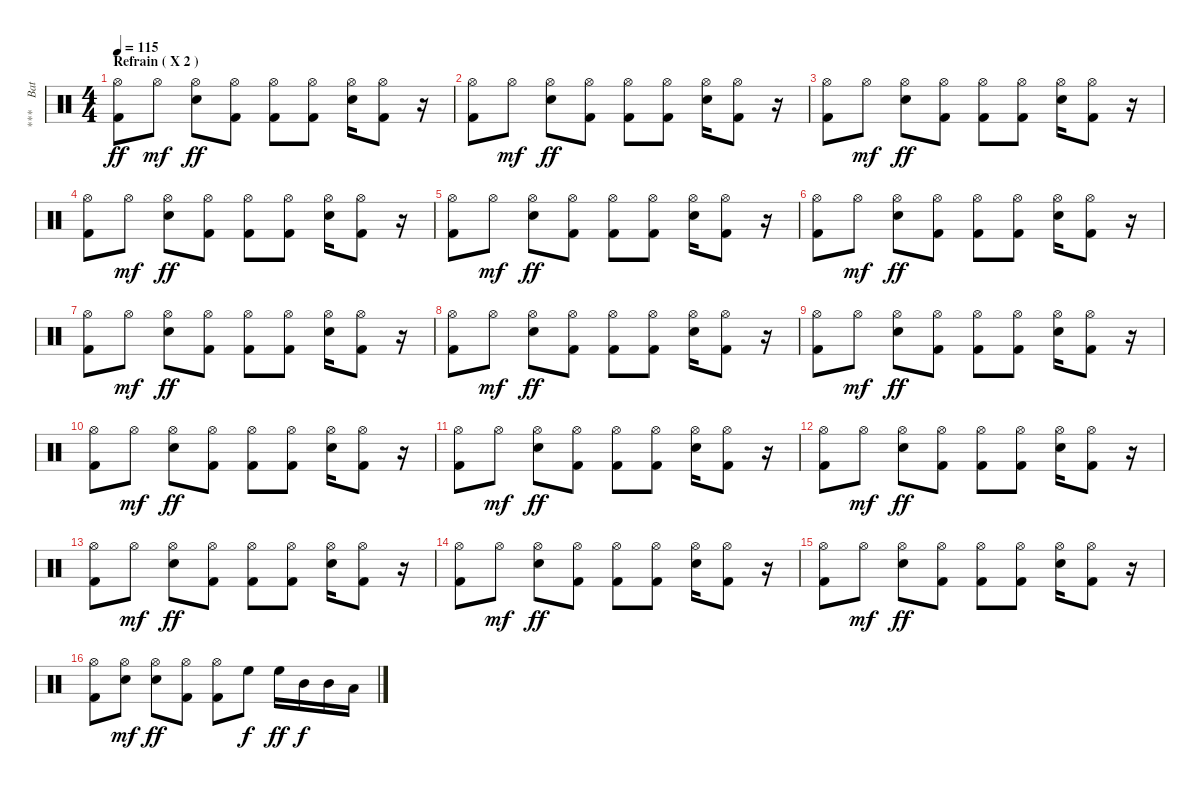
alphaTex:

\track ("***    Batterie     ***" "***    Bat") {instrument percussion}
\staff {score}
\articulation defaults
\ts (4 4)
\section ("" "Refrain ( X 2 )")
\tempo 115
\clef neutral
\ks c
("Hi-Hat (open)" "Kick (hit) 2").8{dy ff} "Hi-Hat (open)".8{dy mf} ("Hi-Hat (open)" "Snare (hit) 2").8{dy ff} ("Hi-Hat (open)" "Kick (hit) 2").8 ("Hi-Hat (open)" "Kick (hit) 2").8 ("Hi-Hat (open)" "Kick (hit) 2").8 ("Hi-Hat (open)" "Snare (hit) 2").16 ("Hi-Hat (open)" "Kick (hit) 2").8 r.16 |
("Hi-Hat (open)" "Kick (hit) 2").8 "Hi-Hat (open)".8{dy mf} ("Hi-Hat (open)" "Snare (hit) 2").8{dy ff} ("Hi-Hat (open)" "Kick (hit) 2").8 ("Hi-Hat (open)" "Kick (hit) 2").8 ("Hi-Hat (open)" "Kick (hit) 2").8 ("Hi-Hat (open)" "Snare (hit) 2").16 ("Hi-Hat (open)" "Kick (hit) 2").8 r.16 |
("Hi-Hat (open)" "Kick (hit) 2").8 "Hi-Hat (open)".8{dy mf} ("Hi-Hat (open)" "Snare (hit) 2").8{dy ff} ("Hi-Hat (open)" "Kick (hit) 2").8 ("Hi-Hat (open)" "Kick (hit) 2").8 ("Hi-Hat (open)" "Kick (hit) 2").8 ("Hi-Hat (open)" "Snare (hit) 2").16 ("Hi-Hat (open)" "Kick (hit) 2").8 r.16 |
("Hi-Hat (open)" "Kick (hit) 2").8 "Hi-Hat (open)".8{dy mf} ("Hi-Hat (open)" "Snare (hit) 2").8{dy ff} ("Hi-Hat (open)" "Kick (hit) 2").8 ("Hi-Hat (open)" "Kick (hit) 2").8 ("Hi-Hat (open)" "Kick (hit) 2").8 ("Hi-Hat (open)" "Snare (hit) 2").16 ("Hi-Hat (open)" "Kick (hit) 2").8 r.16 |
("Hi-Hat (open)" "Kick (hit) 2").8 "Hi-Hat (open)".8{dy mf} ("Hi-Hat (open)" "Snare (hit) 2").8{dy ff} ("Hi-Hat (open)" "Kick (hit) 2").8 ("Hi-Hat (open)" "Kick (hit) 2").8 ("Hi-Hat (open)" "Kick (hit) 2").8 ("Hi-Hat (open)" "Snare (hit) 2").16 ("Hi-Hat (open)" "Kick (hit) 2").8 r.16 |
("Hi-Hat (open)" "Kick (hit) 2").8 "Hi-Hat (open)".8{dy mf} ("Hi-Hat (open)" "Snare (hit) 2").8{dy ff} ("Hi-Hat (open)" "Kick (hit) 2").8 ("Hi-Hat (open)" "Kick (hit) 2").8 ("Hi-Hat (open)" "Kick (hit) 2").8 ("Hi-Hat (open)" "Snare (hit) 2").16 ("Hi-Hat (open)" "Kick (hit) 2").8 r.16 |
("Hi-Hat (open)" "Kick (hit) 2").8 "Hi-Hat (open)".8{dy mf} ("Hi-Hat (open)" "Snare (hit) 2").8{dy ff} ("Hi-Hat (open)" "Kick (hit) 2").8 ("Hi-Hat (open)" "Kick (hit) 2").8 ("Hi-Hat (open)" "Kick (hit) 2").8 ("Hi-Hat (open)" "Snare (hit) 2").16 ("Hi-Hat (open)" "Kick (hit) 2").8 r.16 |
("Hi-Hat (open)" "Kick (hit) 2").8 "Hi-Hat (open)".8{dy mf} ("Hi-Hat (open)" "Snare (hit) 2").8{dy ff} ("Hi-Hat (open)" "Kick (hit) 2").8 ("Hi-Hat (open)" "Kick (hit) 2").8 ("Hi-Hat (open)" "Kick (hit) 2").8 ("Hi-Hat (open)" "Snare (hit) 2").16 ("Hi-Hat (open)" "Kick (hit) 2").8 r.16 |
("Hi-Hat (open)" "Kick (hit) 2").8 "Hi-Hat (open)".8{dy mf} ("Hi-Hat (open)" "Snare (hit) 2").8{dy ff} ("Hi-Hat (open)" "Kick (hit) 2").8 ("Hi-Hat (open)" "Kick (hit) 2").8 ("Hi-Hat (open)" "Kick (hit) 2").8 ("Hi-Hat (open)" "Snare (hit) 2").16 ("Hi-Hat (open)" "Kick (hit) 2").8 r.16 |
("Hi-Hat (open)" "Kick (hit) 2").8 "Hi-Hat (open)".8{dy mf} ("Hi-Hat (open)" "Snare (hit) 2").8{dy ff} ("Hi-Hat (open)" "Kick (hit) 2").8 ("Hi-Hat (open)" "Kick (hit) 2").8 ("Hi-Hat (open)" "Kick (hit) 2").8 ("Hi-Hat (open)" "Snare (hit) 2").16 ("Hi-Hat (open)" "Kick (hit) 2").8 r.16 |
("Hi-Hat (open)" "Kick (hit) 2").8 "Hi-Hat (open)".8{dy mf} ("Hi-Hat (open)" "Snare (hit) 2").8{dy ff} ("Hi-Hat (open)" "Kick (hit) 2").8 ("Hi-Hat (open)" "Kick (hit) 2").8 ("Hi-Hat (open)" "Kick (hit) 2").8 ("Hi-Hat (open)" "Snare (hit) 2").16 ("Hi-Hat (open)" "Kick (hit) 2").8 r.16 |
("Hi-Hat (open)" "Kick (hit) 2").8 "Hi-Hat (open)".8{dy mf} ("Hi-Hat (open)" "Snare (hit) 2").8{dy ff} ("Hi-Hat (open)" "Kick (hit) 2").8 ("Hi-Hat (open)" "Kick (hit) 2").8 ("Hi-Hat (open)" "Kick (hit) 2").8 ("Hi-Hat (open)" "Snare (hit) 2").16 ("Hi-Hat (open)" "Kick (hit) 2").8 r.16 |
("Hi-Hat (open)" "Kick (hit) 2").8 "Hi-Hat (open)".8{dy mf} ("Hi-Hat (open)" "Snare (hit) 2").8{dy ff} ("Hi-Hat (open)" "Kick (hit) 2").8 ("Hi-Hat (open)" "Kick (hit) 2").8 ("Hi-Hat (open)" "Kick (hit) 2").8 ("Hi-Hat (open)" "Snare (hit) 2").16 ("Hi-Hat (open)" "Kick (hit) 2").8 r.16 |
("Hi-Hat (open)" "Kick (hit) 2").8 "Hi-Hat (open)".8{dy mf} ("Hi-Hat (open)" "Snare (hit) 2").8{dy ff} ("Hi-Hat (open)" "Kick (hit) 2").8 ("Hi-Hat (open)" "Kick (hit) 2").8 ("Hi-Hat (open)" "Kick (hit) 2").8 ("Hi-Hat (open)" "Snare (hit) 2").16 ("Hi-Hat (open)" "Kick (hit) 2").8 r.16 |
("Hi-Hat (open)" "Kick (hit) 2").8 "Hi-Hat (open)".8{dy mf} ("Hi-Hat (open)" "Snare (hit) 2").8{dy ff} ("Hi-Hat (open)" "Kick (hit) 2").8 ("Hi-Hat (open)" "Kick (hit) 2").8 ("Hi-Hat (open)" "Kick (hit) 2").8 ("Hi-Hat (open)" "Snare (hit) 2").16 ("Hi-Hat (open)" "Kick (hit) 2").8 r.16 |
("Hi-Hat (open)" "Kick (hit) 2").8 ("Hi-Hat (open)" "Snare (hit) 2").8{dy mf} ("Hi-Hat (open)" "Snare (hit) 2").8{dy ff} ("Hi-Hat (open)" "Kick (hit) 2").8 ("Hi-Hat (open)" "Kick (hit) 2").8 "High Floor Tom (hit)".8{dy f} "High Floor Tom (hit)".16{dy ff} "Mid Tom (hit)".16{dy f} "Mid Tom (hit)".16 "Low Tom (hit)".16
